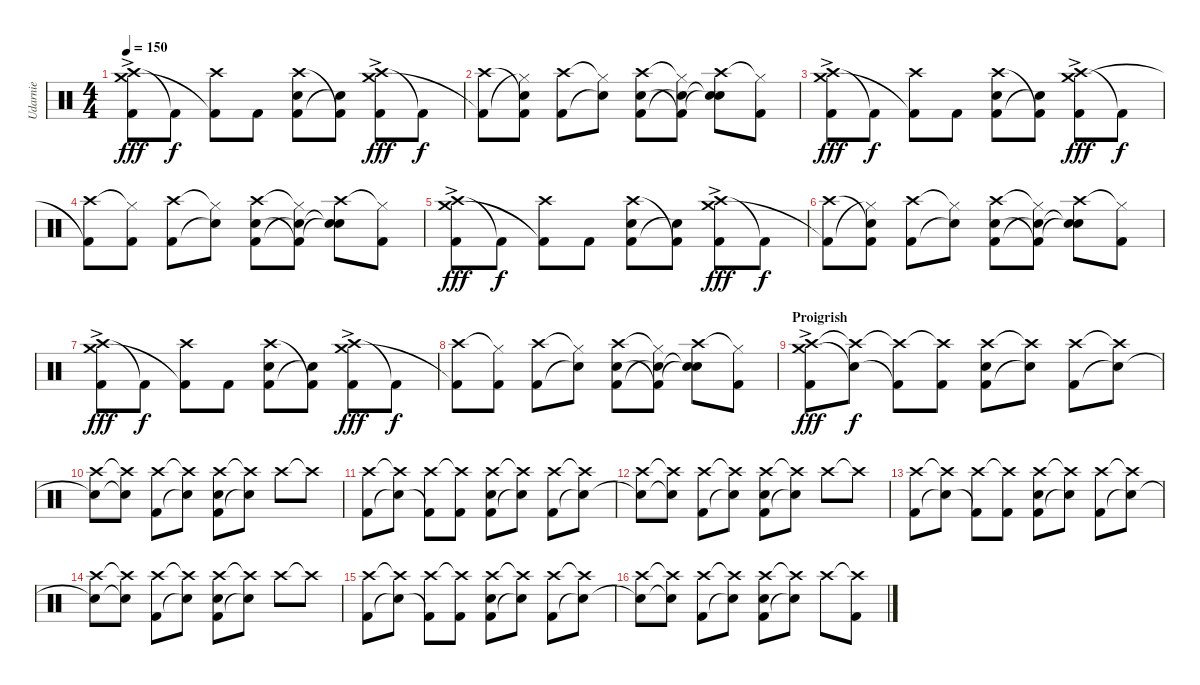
\track ("Udarnie" "Udarnie") {instrument percussion}
\staff {score}
\articulation defaults
\ts (4 4)
\tempo 150
\clef neutral
\ks c
("Crash high (hit)" "Crash medium (hit)"{ac} "Kick (hit) 2").8{dy fff} "Kick (hit) 2"{t}.8{dy f} ("Crash high (hit)" "Kick (hit) 2"{t}).8 "Kick (hit) 2".8 ("Crash high (hit)" "Kick (hit) 2" "Snare (hit) 2").8 ("Kick (hit) 2"{t} "Snare (hit) 2"{t}).8 ("Crash high (hit)" "Crash medium (hit)"{ac} "Kick (hit) 2").8{dy fff} "Kick (hit) 2"{t}.8{dy f} |
("Crash high (hit)" "Kick (hit) 2"{t}).8 ("Snare (hit)"{t} "Hi-Hat (closed)"{t} "Kick (hit) 2").8 ("Crash high (hit)" "Kick (hit) 2").8 ("Hi-Hat (closed)"{t} "Snare (hit)"{t}).8 ("Crash high (hit)" "Snare (hit) 2" "Kick (hit) 2").8 ("Hi-Hat (closed)"{t} "Kick (hit) 2"{t} "Snare (hit) 2"{t}).8 ("Crash high (hit)" "Snare (hit)"{t} "Snare (hit)"{t}).8 ("Hi-Hat (closed)"{t} "Kick (hit) 2").8 |
("Crash high (hit)" "Crash medium (hit)"{ac} "Kick (hit) 2").8{dy fff} "Kick (hit) 2"{t}.8{dy f} ("Crash high (hit)" "Kick (hit) 2"{t}).8 "Kick (hit) 2".8 ("Crash high (hit)" "Kick (hit) 2" "Snare (hit) 2").8 ("Kick (hit) 2"{t} "Snare (hit) 2"{t}).8 ("Crash high (hit)" "Crash medium (hit)"{ac} "Kick (hit) 2").8{dy fff} "Kick (hit) 2"{t}.8{dy f} |
("Crash high (hit)" "Kick (hit) 2"{t}).8 ("Hi-Hat (closed)"{t} "Kick (hit) 2").8 ("Crash high (hit)" "Kick (hit) 2").8 ("Hi-Hat (closed)"{t} "Snare (hit)"{t}).8 ("Crash high (hit)" "Snare (hit) 2" "Kick (hit) 2").8 ("Hi-Hat (closed)"{t} "Kick (hit) 2"{t} "Snare (hit) 2"{t}).8 ("Crash high (hit)" "Snare (hit)"{t} "Snare (hit)"{t}).8 ("Hi-Hat (closed)"{t} "Kick (hit) 2").8 |
("Crash high (hit)" "Crash medium (hit)"{ac} "Kick (hit) 2").8{dy fff} "Kick (hit) 2"{t}.8{dy f} ("Crash high (hit)" "Kick (hit) 2"{t}).8 "Kick (hit) 2".8 ("Crash high (hit)" "Kick (hit) 2" "Snare (hit) 2").8 ("Kick (hit) 2"{t} "Snare (hit) 2"{t}).8 ("Crash high (hit)" "Crash medium (hit)"{ac} "Kick (hit) 2").8{dy fff} "Kick (hit) 2"{t}.8{dy f} |
("Crash high (hit)" "Kick (hit) 2"{t}).8 ("Snare (hit)"{t} "Hi-Hat (closed)"{t} "Kick (hit) 2").8 ("Crash high (hit)" "Kick (hit) 2").8 ("Hi-Hat (closed)"{t} "Snare (hit)"{t}).8 ("Crash high (hit)" "Snare (hit) 2" "Kick (hit) 2").8 ("Hi-Hat (closed)"{t} "Kick (hit) 2"{t} "Snare (hit) 2"{t}).8 ("Crash high (hit)" "Snare (hit)"{t} "Snare (hit)"{t}).8 ("Hi-Hat (closed)"{t} "Kick (hit) 2").8 |
("Crash high (hit)" "Crash medium (hit)"{ac} "Kick (hit) 2").8{dy fff} "Kick (hit) 2"{t}.8{dy f} ("Crash high (hit)" "Kick (hit) 2"{t}).8 "Kick (hit) 2".8 ("Crash high (hit)" "Kick (hit) 2" "Snare (hit) 2").8 ("Kick (hit) 2"{t} "Snare (hit) 2"{t}).8 ("Crash high (hit)" "Crash medium (hit)"{ac} "Kick (hit) 2").8{dy fff} "Kick (hit) 2"{t}.8{dy f} |
("Crash high (hit)" "Kick (hit) 2"{t}).8 ("Hi-Hat (closed)"{t} "Kick (hit) 2").8 ("Crash high (hit)" "Kick (hit) 2").8 ("Hi-Hat (closed)"{t} "Snare (hit)"{t}).8 ("Crash high (hit)" "Snare (hit) 2" "Kick (hit) 2").8 ("Hi-Hat (closed)"{t} "Kick (hit) 2"{t} "Snare (hit) 2"{t}).8 ("Crash high (hit)" "Snare (hit)"{t} "Snare (hit)"{t}).8 ("Hi-Hat (closed)"{t} "Kick (hit) 2").8 |
\section ("" "Proigrish")
("Crash high (hit)"{ac} "Crash medium (hit)"{ac} "Kick (hit) 2").8{dy fff} ("Crash high (hit)"{t} "Snare (hit)"{t}).8{dy f} ("Crash high (hit)"{t} "Kick (hit) 2"{t}).8 ("Crash high (hit)"{t} "Kick (hit) 2").8 ("Crash high (hit)" "Kick (hit) 2" "Snare (hit) 2").8 ("Crash high (hit)"{t} "Snare (hit)"{t}).8 ("Crash high (hit)" "Kick (hit) 2").8 ("Crash high (hit)"{t} "Snare (hit) 2"{t}).8 |
("Crash high (hit)" "Snare (hit)"{t}).8 ("Crash high (hit)"{t} "Snare (hit)"{t}).8 ("Crash high (hit)" "Kick (hit) 2").8 ("Crash high (hit)"{t} "Snare (hit)"{t}).8 ("Crash high (hit)" "Kick (hit) 2" "Snare (hit) 2").8 ("Crash high (hit)"{t} "Snare (hit)"{t}).8 "Crash high (hit)".8 "Crash high (hit)"{t}.8 |
("Crash high (hit)" "Kick (hit) 2").8 ("Crash high (hit)"{t} "Snare (hit)"{t}).8 ("Crash high (hit)" "Kick (hit) 2"{t}).8 ("Crash high (hit)"{t} "Kick (hit) 2").8 ("Crash high (hit)" "Kick (hit) 2" "Snare (hit) 2").8 ("Crash high (hit)"{t} "Snare (hit)"{t}).8 ("Crash high (hit)" "Kick (hit) 2").8 ("Crash high (hit)"{t} "Snare (hit) 2"{t}).8 |
("Crash high (hit)" "Snare (hit)"{t}).8 ("Crash high (hit)"{t} "Snare (hit)"{t}).8 ("Crash high (hit)" "Kick (hit) 2").8 ("Crash high (hit)"{t} "Snare (hit)"{t}).8 ("Crash high (hit)" "Kick (hit) 2" "Snare (hit) 2").8 ("Crash high (hit)"{t} "Snare (hit)"{t}).8 "Crash high (hit)".8 "Crash high (hit)"{t}.8 |
("Crash high (hit)" "Kick (hit) 2").8 ("Crash high (hit)"{t} "Snare (hit)"{t}).8 ("Crash high (hit)" "Kick (hit) 2"{t}).8 ("Crash high (hit)"{t} "Kick (hit) 2").8 ("Crash high (hit)" "Kick (hit) 2" "Snare (hit) 2").8 ("Crash high (hit)"{t} "Snare (hit)"{t}).8 ("Crash high (hit)" "Kick (hit) 2").8 ("Crash high (hit)"{t} "Snare (hit) 2"{t}).8 |
("Crash high (hit)" "Snare (hit)"{t}).8 ("Crash high (hit)"{t} "Snare (hit)"{t}).8 ("Crash high (hit)" "Kick (hit) 2").8 ("Crash high (hit)"{t} "Snare (hit)"{t}).8 ("Crash high (hit)" "Kick (hit) 2" "Snare (hit) 2").8 ("Crash high (hit)"{t} "Snare (hit)"{t}).8 "Crash high (hit)".8 "Crash high (hit)"{t}.8 |
("Crash high (hit)" "Kick (hit) 2").8 ("Crash high (hit)"{t} "Snare (hit)"{t}).8 ("Crash high (hit)" "Kick (hit) 2"{t}).8 ("Crash high (hit)"{t} "Kick (hit) 2").8 ("Crash high (hit)" "Kick (hit) 2" "Snare (hit) 2").8 ("Crash high (hit)"{t} "Snare (hit)"{t}).8 ("Crash high (hit)" "Kick (hit) 2").8 ("Crash high (hit)"{t} "Snare (hit) 2"{t}).8 |
("Crash high (hit)" "Snare (hit)"{t}).8 ("Crash high (hit)"{t} "Snare (hit)"{t}).8 ("Crash high (hit)" "Kick (hit) 2").8 ("Crash high (hit)"{t} "Snare (hit)"{t}).8 ("Crash high (hit)" "Kick (hit) 2" "Snare (hit) 2").8 ("Crash high (hit)"{t} "Snare (hit)"{t}).8 "Crash high (hit)".8 ("Crash high (hit)"{t} "Kick (hit) 2").8
